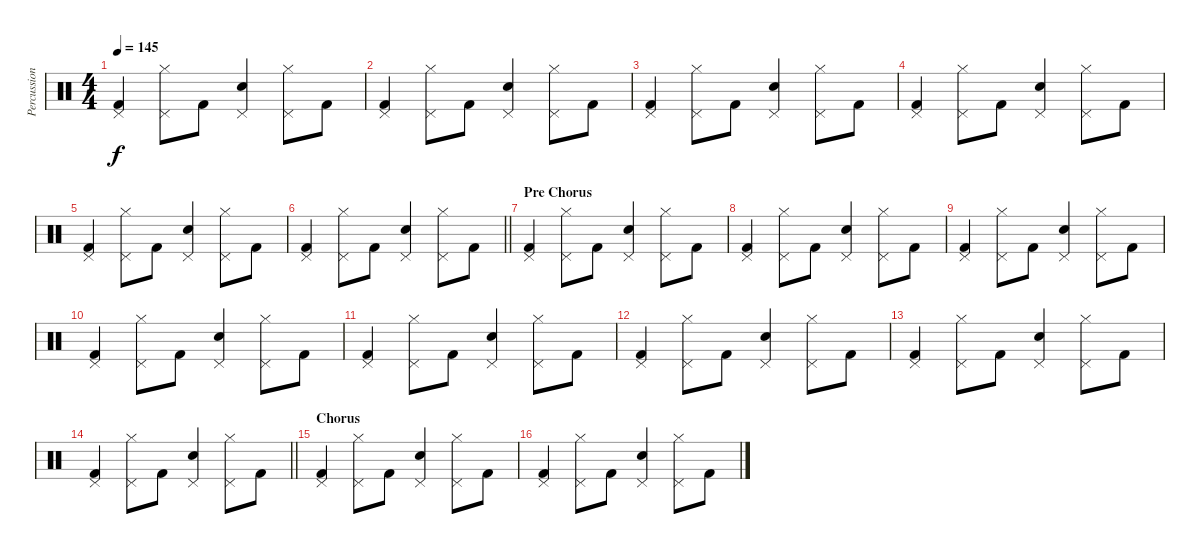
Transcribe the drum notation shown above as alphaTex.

\track ("Percussion" "Percussion") {instrument percussion}
\staff {score}
\articulation defaults
\ts (4 4)
\tempo 145
\clef neutral
\ks c
("Kick (hit) 2" "Pedal Hi-Hat (hit)").4{dy f} ("Hi-Hat (closed)" "Pedal Hi-Hat (hit)").8 "Kick (hit) 2".8 ("Snare (hit) 2" "Pedal Hi-Hat (hit)").4 ("Hi-Hat (closed)" "Pedal Hi-Hat (hit)").8 "Kick (hit) 2".8 |
("Kick (hit) 2" "Pedal Hi-Hat (hit)").4 ("Hi-Hat (closed)" "Pedal Hi-Hat (hit)").8 "Kick (hit) 2".8 ("Snare (hit) 2" "Pedal Hi-Hat (hit)").4 ("Hi-Hat (closed)" "Pedal Hi-Hat (hit)").8 "Kick (hit) 2".8 |
("Kick (hit) 2" "Pedal Hi-Hat (hit)").4 ("Hi-Hat (closed)" "Pedal Hi-Hat (hit)").8 "Kick (hit) 2".8 ("Snare (hit) 2" "Pedal Hi-Hat (hit)").4 ("Hi-Hat (closed)" "Pedal Hi-Hat (hit)").8 "Kick (hit) 2".8 |
("Kick (hit) 2" "Pedal Hi-Hat (hit)").4 ("Hi-Hat (closed)" "Pedal Hi-Hat (hit)").8 "Kick (hit) 2".8 ("Snare (hit) 2" "Pedal Hi-Hat (hit)").4 ("Hi-Hat (closed)" "Pedal Hi-Hat (hit)").8 "Kick (hit) 2".8 |
("Kick (hit) 2" "Pedal Hi-Hat (hit)").4 ("Hi-Hat (closed)" "Pedal Hi-Hat (hit)").8 "Kick (hit) 2".8 ("Snare (hit) 2" "Pedal Hi-Hat (hit)").4 ("Hi-Hat (closed)" "Pedal Hi-Hat (hit)").8 "Kick (hit) 2".8 |
\barLineRight lightlight
("Kick (hit) 2" "Pedal Hi-Hat (hit)").4 ("Hi-Hat (closed)" "Pedal Hi-Hat (hit)").8 "Kick (hit) 2".8 ("Snare (hit) 2" "Pedal Hi-Hat (hit)").4 ("Hi-Hat (closed)" "Pedal Hi-Hat (hit)").8 "Kick (hit) 2".8 |
\section ("" "Pre Chorus")
("Kick (hit) 2" "Pedal Hi-Hat (hit)").4 ("Hi-Hat (closed)" "Pedal Hi-Hat (hit)").8 "Kick (hit) 2".8 ("Snare (hit) 2" "Pedal Hi-Hat (hit)").4 ("Hi-Hat (closed)" "Pedal Hi-Hat (hit)").8 "Kick (hit) 2".8 |
("Kick (hit) 2" "Pedal Hi-Hat (hit)").4 ("Hi-Hat (closed)" "Pedal Hi-Hat (hit)").8 "Kick (hit) 2".8 ("Snare (hit) 2" "Pedal Hi-Hat (hit)").4 ("Hi-Hat (closed)" "Pedal Hi-Hat (hit)").8 "Kick (hit) 2".8 |
("Kick (hit) 2" "Pedal Hi-Hat (hit)").4 ("Hi-Hat (closed)" "Pedal Hi-Hat (hit)").8 "Kick (hit) 2".8 ("Snare (hit) 2" "Pedal Hi-Hat (hit)").4 ("Hi-Hat (closed)" "Pedal Hi-Hat (hit)").8 "Kick (hit) 2".8 |
("Kick (hit) 2" "Pedal Hi-Hat (hit)").4 ("Hi-Hat (closed)" "Pedal Hi-Hat (hit)").8 "Kick (hit) 2".8 ("Snare (hit) 2" "Pedal Hi-Hat (hit)").4 ("Hi-Hat (closed)" "Pedal Hi-Hat (hit)").8 "Kick (hit) 2".8 |
("Kick (hit) 2" "Pedal Hi-Hat (hit)").4 ("Hi-Hat (closed)" "Pedal Hi-Hat (hit)").8 "Kick (hit) 2".8 ("Snare (hit) 2" "Pedal Hi-Hat (hit)").4 ("Hi-Hat (closed)" "Pedal Hi-Hat (hit)").8 "Kick (hit) 2".8 |
("Kick (hit) 2" "Pedal Hi-Hat (hit)").4 ("Hi-Hat (closed)" "Pedal Hi-Hat (hit)").8 "Kick (hit) 2".8 ("Snare (hit) 2" "Pedal Hi-Hat (hit)").4 ("Hi-Hat (closed)" "Pedal Hi-Hat (hit)").8 "Kick (hit) 2".8 |
("Kick (hit) 2" "Pedal Hi-Hat (hit)").4 ("Hi-Hat (closed)" "Pedal Hi-Hat (hit)").8 "Kick (hit) 2".8 ("Snare (hit) 2" "Pedal Hi-Hat (hit)").4 ("Hi-Hat (closed)" "Pedal Hi-Hat (hit)").8 "Kick (hit) 2".8 |
\barLineRight lightlight
("Kick (hit) 2" "Pedal Hi-Hat (hit)").4 ("Hi-Hat (closed)" "Pedal Hi-Hat (hit)").8 "Kick (hit) 2".8 ("Snare (hit) 2" "Pedal Hi-Hat (hit)").4 ("Hi-Hat (closed)" "Pedal Hi-Hat (hit)").8 "Kick (hit) 2".8 |
\section ("" "Chorus")
("Kick (hit) 2" "Pedal Hi-Hat (hit)").4 ("Hi-Hat (closed)" "Pedal Hi-Hat (hit)").8 "Kick (hit) 2".8 ("Snare (hit) 2" "Pedal Hi-Hat (hit)").4 ("Hi-Hat (closed)" "Pedal Hi-Hat (hit)").8 "Kick (hit) 2".8 |
("Kick (hit) 2" "Pedal Hi-Hat (hit)").4 ("Hi-Hat (closed)" "Pedal Hi-Hat (hit)").8 "Kick (hit) 2".8 ("Snare (hit) 2" "Pedal Hi-Hat (hit)").4 ("Hi-Hat (closed)" "Pedal Hi-Hat (hit)").8 "Kick (hit) 2".8
